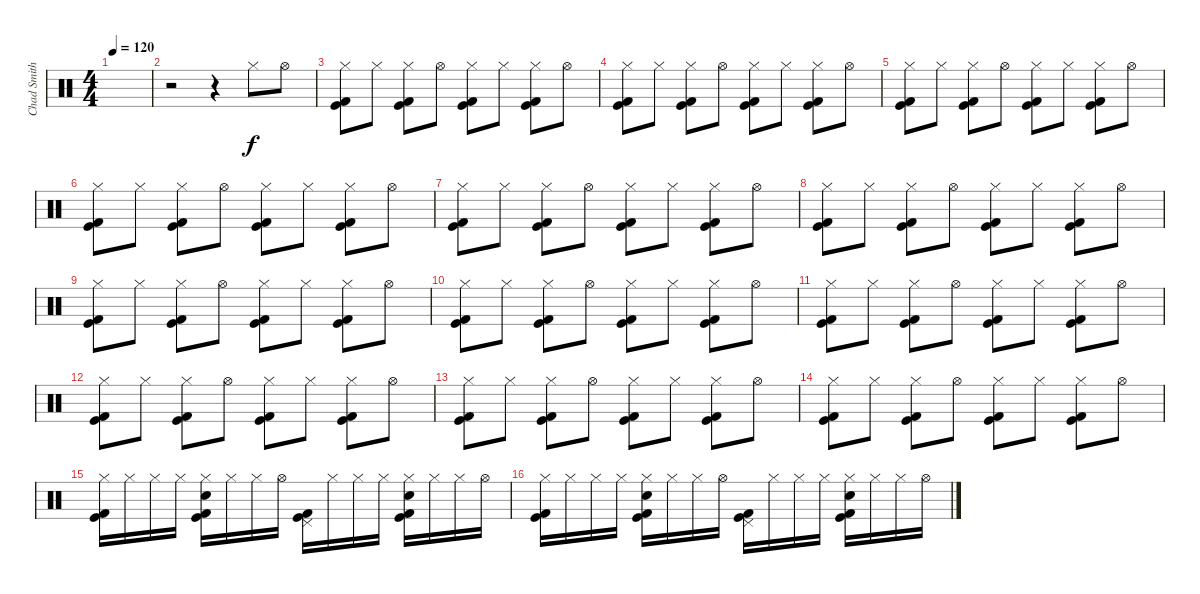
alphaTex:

\track ("Chad Smith" "Chad Smith") {instrument percussion}
\staff {score}
\articulation defaults
\ts (4 4)
\tempo 120
\clef neutral
\ks c
|
r.2 r.4 "Hi-Hat (closed)".8 "Hi-Hat (open)".8 |
("Hi-Hat (closed)" "Kick (hit) 2" "Kick (hit)").8 "Hi-Hat (closed)".8 ("Hi-Hat (closed)" "Kick (hit) 2" "Kick (hit)").8 "Hi-Hat (open)".8 ("Hi-Hat (closed)" "Kick (hit) 2" "Kick (hit)").8 "Hi-Hat (closed)".8 ("Hi-Hat (closed)" "Kick (hit) 2" "Kick (hit)").8 "Hi-Hat (open)".8 |
("Hi-Hat (closed)" "Kick (hit) 2" "Kick (hit)").8 "Hi-Hat (closed)".8 ("Hi-Hat (closed)" "Kick (hit) 2" "Kick (hit)").8 "Hi-Hat (open)".8 ("Hi-Hat (closed)" "Kick (hit) 2" "Kick (hit)").8 "Hi-Hat (closed)".8 ("Hi-Hat (closed)" "Kick (hit) 2" "Kick (hit)").8 "Hi-Hat (open)".8 |
("Hi-Hat (closed)" "Kick (hit) 2" "Kick (hit)").8 "Hi-Hat (closed)".8 ("Hi-Hat (closed)" "Kick (hit) 2" "Kick (hit)").8 "Hi-Hat (open)".8 ("Hi-Hat (closed)" "Kick (hit) 2" "Kick (hit)").8 "Hi-Hat (closed)".8 ("Hi-Hat (closed)" "Kick (hit) 2" "Kick (hit)").8 "Hi-Hat (open)".8 |
("Hi-Hat (closed)" "Kick (hit) 2" "Kick (hit)").8 "Hi-Hat (closed)".8 ("Hi-Hat (closed)" "Kick (hit) 2" "Kick (hit)").8 "Hi-Hat (open)".8 ("Hi-Hat (closed)" "Kick (hit) 2" "Kick (hit)").8 "Hi-Hat (closed)".8 ("Hi-Hat (closed)" "Kick (hit) 2" "Kick (hit)").8 "Hi-Hat (open)".8 |
("Hi-Hat (closed)" "Kick (hit) 2" "Kick (hit)").8 "Hi-Hat (closed)".8 ("Hi-Hat (closed)" "Kick (hit) 2" "Kick (hit)").8 "Hi-Hat (open)".8 ("Hi-Hat (closed)" "Kick (hit) 2" "Kick (hit)").8 "Hi-Hat (closed)".8 ("Hi-Hat (closed)" "Kick (hit) 2" "Kick (hit)").8 "Hi-Hat (open)".8 |
("Hi-Hat (closed)" "Kick (hit) 2" "Kick (hit)").8 "Hi-Hat (closed)".8 ("Hi-Hat (closed)" "Kick (hit) 2" "Kick (hit)").8 "Hi-Hat (open)".8 ("Hi-Hat (closed)" "Kick (hit) 2" "Kick (hit)").8 "Hi-Hat (closed)".8 ("Hi-Hat (closed)" "Kick (hit) 2" "Kick (hit)").8 "Hi-Hat (open)".8 |
("Hi-Hat (closed)" "Kick (hit) 2" "Kick (hit)").8 "Hi-Hat (closed)".8 ("Hi-Hat (closed)" "Kick (hit) 2" "Kick (hit)").8 "Hi-Hat (open)".8 ("Hi-Hat (closed)" "Kick (hit) 2" "Kick (hit)").8 "Hi-Hat (closed)".8 ("Hi-Hat (closed)" "Kick (hit) 2" "Kick (hit)").8 "Hi-Hat (open)".8 |
("Hi-Hat (closed)" "Kick (hit) 2" "Kick (hit)").8 "Hi-Hat (closed)".8 ("Hi-Hat (closed)" "Kick (hit) 2" "Kick (hit)").8 "Hi-Hat (open)".8 ("Hi-Hat (closed)" "Kick (hit) 2" "Kick (hit)").8 "Hi-Hat (closed)".8 ("Hi-Hat (closed)" "Kick (hit) 2" "Kick (hit)").8 "Hi-Hat (open)".8 |
("Hi-Hat (closed)" "Kick (hit) 2" "Kick (hit)").8 "Hi-Hat (closed)".8 ("Hi-Hat (closed)" "Kick (hit) 2" "Kick (hit)").8 "Hi-Hat (open)".8 ("Hi-Hat (closed)" "Kick (hit) 2" "Kick (hit)").8 "Hi-Hat (closed)".8 ("Hi-Hat (closed)" "Kick (hit) 2" "Kick (hit)").8 "Hi-Hat (open)".8 |
("Hi-Hat (closed)" "Kick (hit) 2" "Kick (hit)").8 "Hi-Hat (closed)".8 ("Hi-Hat (closed)" "Kick (hit) 2" "Kick (hit)").8 "Hi-Hat (open)".8 ("Hi-Hat (closed)" "Kick (hit) 2" "Kick (hit)").8 "Hi-Hat (closed)".8 ("Hi-Hat (closed)" "Kick (hit) 2" "Kick (hit)").8 "Hi-Hat (open)".8 |
("Hi-Hat (closed)" "Kick (hit) 2" "Kick (hit)").8 "Hi-Hat (closed)".8 ("Hi-Hat (closed)" "Kick (hit) 2" "Kick (hit)").8 "Hi-Hat (open)".8 ("Hi-Hat (closed)" "Kick (hit) 2" "Kick (hit)").8 "Hi-Hat (closed)".8 ("Hi-Hat (closed)" "Kick (hit) 2" "Kick (hit)").8 "Hi-Hat (open)".8 |
("Hi-Hat (closed)" "Kick (hit) 2" "Kick (hit)").8 "Hi-Hat (closed)".8 ("Hi-Hat (closed)" "Kick (hit) 2" "Kick (hit)").8 "Hi-Hat (open)".8 ("Hi-Hat (closed)" "Kick (hit) 2" "Kick (hit)").8 "Hi-Hat (closed)".8 ("Hi-Hat (closed)" "Kick (hit) 2" "Kick (hit)").8 "Hi-Hat (open)".8 |
("Hi-Hat (closed)" "Kick (hit) 2" "Kick (hit)").16 "Hi-Hat (closed)".16 "Hi-Hat (closed)".16 "Hi-Hat (closed)".16 ("Hi-Hat (closed)" "Snare (hit) 2" "Kick (hit) 2" "Kick (hit)").16 "Hi-Hat (closed)".16 "Hi-Hat (closed)".16 "Hi-Hat (open)".16 ("Pedal Hi-Hat (hit)" "Kick (hit) 2" "Kick (hit)").16 "Hi-Hat (closed)".16 "Hi-Hat (closed)".16 "Hi-Hat (closed)".16 ("Hi-Hat (closed)" "Snare (hit) 2" "Kick (hit) 2" "Kick (hit)").16 "Hi-Hat (closed)".16 "Hi-Hat (closed)".16 "Hi-Hat (open)".16 |
("Hi-Hat (closed)" "Kick (hit) 2" "Kick (hit)").16 "Hi-Hat (closed)".16 "Hi-Hat (closed)".16 "Hi-Hat (closed)".16 ("Hi-Hat (closed)" "Snare (hit) 2" "Kick (hit) 2" "Kick (hit)").16 "Hi-Hat (closed)".16 "Hi-Hat (closed)".16 "Hi-Hat (open)".16 ("Pedal Hi-Hat (hit)" "Kick (hit) 2" "Kick (hit)").16 "Hi-Hat (closed)".16 "Hi-Hat (closed)".16 "Hi-Hat (closed)".16 ("Hi-Hat (closed)" "Snare (hit) 2" "Kick (hit) 2" "Kick (hit)").16 "Hi-Hat (closed)".16 "Hi-Hat (closed)".16 "Hi-Hat (open)".16
